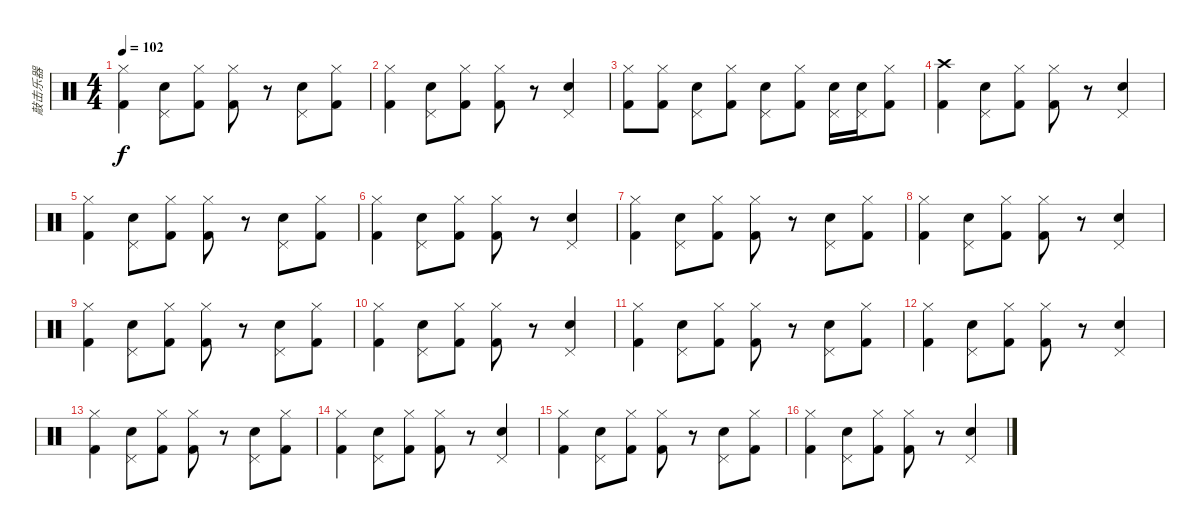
\track ("敲击乐器" "敲击乐器") {instrument percussion}
\staff {score}
\articulation defaults
\ts (4 4)
\tempo 102
\clef neutral
\ks c
("Hi-Hat (closed)" "Kick (hit) 2").4{dy f} ("Pedal Hi-Hat (hit)" "Snare (hit) 2").8 ("Hi-Hat (closed)" "Kick (hit) 2").8 ("Hi-Hat (closed)" "Kick (hit) 2").8 r.8 ("Pedal Hi-Hat (hit)" "Snare (hit) 2").8 ("Hi-Hat (closed)" "Kick (hit) 2").8 |
("Hi-Hat (closed)" "Kick (hit) 2").4 ("Pedal Hi-Hat (hit)" "Snare (hit) 2").8 ("Hi-Hat (closed)" "Kick (hit) 2").8 ("Hi-Hat (closed)" "Kick (hit) 2").8 r.8 ("Pedal Hi-Hat (hit)" "Snare (hit) 2").4 |
("Hi-Hat (closed)" "Kick (hit) 2").8 ("Hi-Hat (closed)" "Kick (hit) 2").8 ("Pedal Hi-Hat (hit)" "Snare (hit) 2").8 ("Hi-Hat (closed)" "Kick (hit) 2").8 ("Pedal Hi-Hat (hit)" "Snare (hit) 2").8 ("Hi-Hat (closed)" "Kick (hit) 2").8 ("Pedal Hi-Hat (hit)" "Snare (hit) 2").16 ("Pedal Hi-Hat (hit)" "Snare (hit) 2").16 ("Hi-Hat (closed)" "Kick (hit) 2").8 |
("Crash high (hit)" "Kick (hit) 2").4 ("Pedal Hi-Hat (hit)" "Snare (hit) 2").8 ("Hi-Hat (closed)" "Kick (hit) 2").8 ("Hi-Hat (closed)" "Kick (hit) 2").8 r.8 ("Pedal Hi-Hat (hit)" "Snare (hit) 2").4 |
("Hi-Hat (closed)" "Kick (hit) 2").4 ("Pedal Hi-Hat (hit)" "Snare (hit) 2").8 ("Hi-Hat (closed)" "Kick (hit) 2").8 ("Hi-Hat (closed)" "Kick (hit) 2").8 r.8 ("Pedal Hi-Hat (hit)" "Snare (hit) 2").8 ("Hi-Hat (closed)" "Kick (hit) 2").8 |
("Hi-Hat (closed)" "Kick (hit) 2").4 ("Pedal Hi-Hat (hit)" "Snare (hit) 2").8 ("Hi-Hat (closed)" "Kick (hit) 2").8 ("Hi-Hat (closed)" "Kick (hit) 2").8 r.8 ("Pedal Hi-Hat (hit)" "Snare (hit) 2").4 |
("Hi-Hat (closed)" "Kick (hit) 2").4 ("Pedal Hi-Hat (hit)" "Snare (hit) 2").8 ("Hi-Hat (closed)" "Kick (hit) 2").8 ("Hi-Hat (closed)" "Kick (hit) 2").8 r.8 ("Pedal Hi-Hat (hit)" "Snare (hit) 2").8 ("Hi-Hat (closed)" "Kick (hit) 2").8 |
("Hi-Hat (closed)" "Kick (hit) 2").4 ("Pedal Hi-Hat (hit)" "Snare (hit) 2").8 ("Hi-Hat (closed)" "Kick (hit) 2").8 ("Hi-Hat (closed)" "Kick (hit) 2").8 r.8 ("Pedal Hi-Hat (hit)" "Snare (hit) 2").4 |
("Hi-Hat (closed)" "Kick (hit) 2").4 ("Pedal Hi-Hat (hit)" "Snare (hit) 2").8 ("Hi-Hat (closed)" "Kick (hit) 2").8 ("Hi-Hat (closed)" "Kick (hit) 2").8 r.8 ("Pedal Hi-Hat (hit)" "Snare (hit) 2").8 ("Hi-Hat (closed)" "Kick (hit) 2").8 |
("Hi-Hat (closed)" "Kick (hit) 2").4 ("Pedal Hi-Hat (hit)" "Snare (hit) 2").8 ("Hi-Hat (closed)" "Kick (hit) 2").8 ("Hi-Hat (closed)" "Kick (hit) 2").8 r.8 ("Pedal Hi-Hat (hit)" "Snare (hit) 2").4 |
("Hi-Hat (closed)" "Kick (hit) 2").4 ("Pedal Hi-Hat (hit)" "Snare (hit) 2").8 ("Hi-Hat (closed)" "Kick (hit) 2").8 ("Hi-Hat (closed)" "Kick (hit) 2").8 r.8 ("Pedal Hi-Hat (hit)" "Snare (hit) 2").8 ("Hi-Hat (closed)" "Kick (hit) 2").8 |
("Hi-Hat (closed)" "Kick (hit) 2").4 ("Pedal Hi-Hat (hit)" "Snare (hit) 2").8 ("Hi-Hat (closed)" "Kick (hit) 2").8 ("Hi-Hat (closed)" "Kick (hit) 2").8 r.8 ("Pedal Hi-Hat (hit)" "Snare (hit) 2").4 |
("Hi-Hat (closed)" "Kick (hit) 2").4 ("Pedal Hi-Hat (hit)" "Snare (hit) 2").8 ("Hi-Hat (closed)" "Kick (hit) 2").8 ("Hi-Hat (closed)" "Kick (hit) 2").8 r.8 ("Pedal Hi-Hat (hit)" "Snare (hit) 2").8 ("Hi-Hat (closed)" "Kick (hit) 2").8 |
("Hi-Hat (closed)" "Kick (hit) 2").4 ("Pedal Hi-Hat (hit)" "Snare (hit) 2").8 ("Hi-Hat (closed)" "Kick (hit) 2").8 ("Hi-Hat (closed)" "Kick (hit) 2").8 r.8 ("Pedal Hi-Hat (hit)" "Snare (hit) 2").4 |
("Hi-Hat (closed)" "Kick (hit) 2").4 ("Pedal Hi-Hat (hit)" "Snare (hit) 2").8 ("Hi-Hat (closed)" "Kick (hit) 2").8 ("Hi-Hat (closed)" "Kick (hit) 2").8 r.8 ("Pedal Hi-Hat (hit)" "Snare (hit) 2").8 ("Hi-Hat (closed)" "Kick (hit) 2").8 |
("Hi-Hat (closed)" "Kick (hit) 2").4 ("Pedal Hi-Hat (hit)" "Snare (hit) 2").8 ("Hi-Hat (closed)" "Kick (hit) 2").8 ("Hi-Hat (closed)" "Kick (hit) 2").8 r.8 ("Pedal Hi-Hat (hit)" "Snare (hit) 2").4
